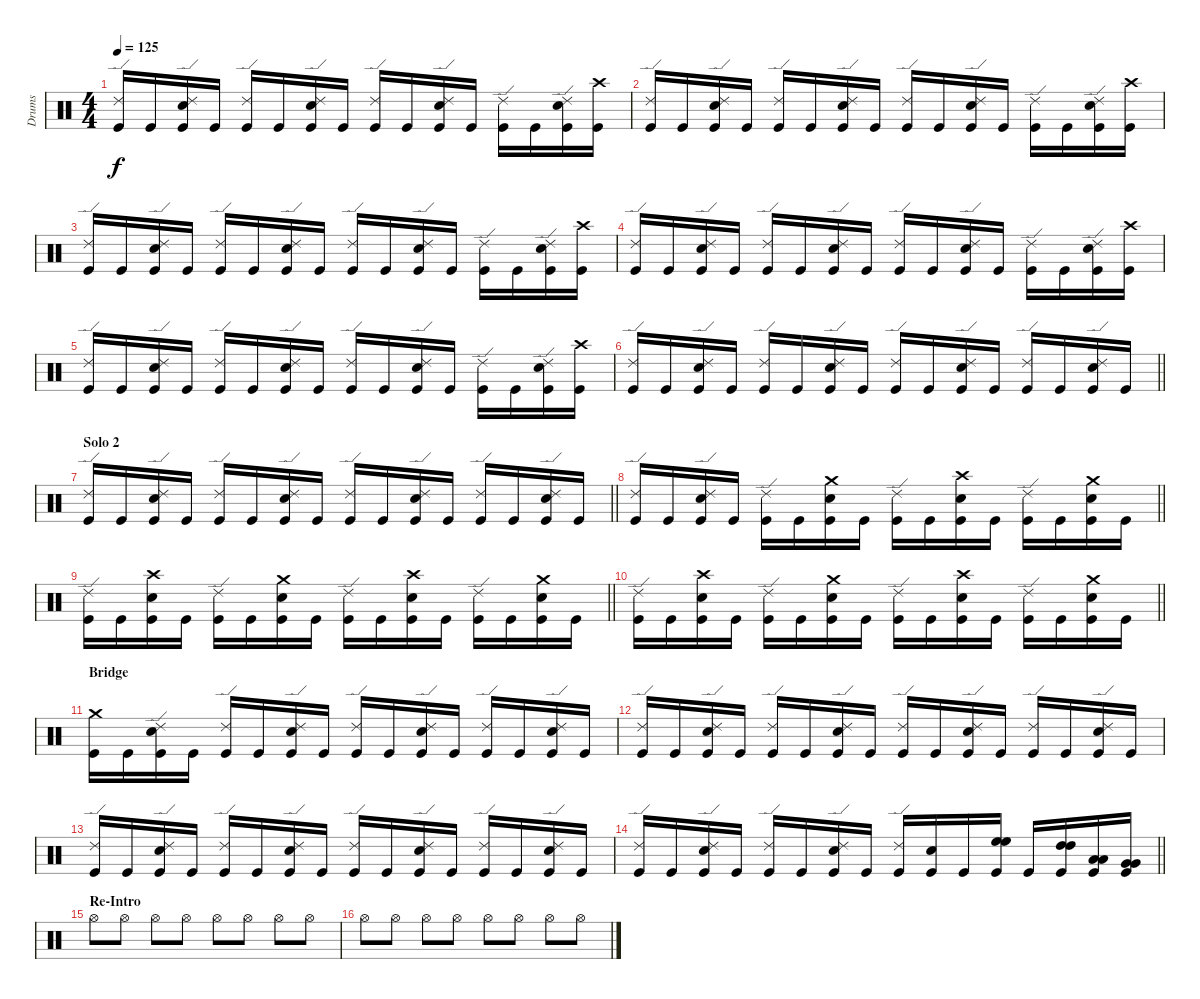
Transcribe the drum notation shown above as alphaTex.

\track ("Drums" "Drums") {instrument percussion}
\staff {score}
\articulation defaults
\ts (4 4)
\tempo 125
\clef neutral
\ks c
("Ride (edge) 2" "Kick (hit)").16{dy f} "Kick (hit)".16 ("Ride (edge) 2" "Snare (hit) 2" "Kick (hit)").16 "Kick (hit)".16 ("Ride (edge) 2" "Kick (hit)").16 "Kick (hit)".16 ("Ride (edge) 2" "Snare (hit) 2" "Kick (hit)").16 "Kick (hit)".16 ("Ride (edge) 2" "Kick (hit)").16 "Kick (hit)".16 ("Ride (edge) 2" "Snare (hit) 2" "Kick (hit)").16 "Kick (hit)".16 ("Ride (edge) 2" "Kick (hit)").16 "Kick (hit)".16 ("Ride (edge) 2" "Snare (hit) 2" "Kick (hit)").16 ("Crash high (hit)" "Kick (hit)").16 |
("Ride (edge) 2" "Kick (hit)").16 "Kick (hit)".16 ("Ride (edge) 2" "Snare (hit) 2" "Kick (hit)").16 "Kick (hit)".16 ("Ride (edge) 2" "Kick (hit)").16 "Kick (hit)".16 ("Ride (edge) 2" "Snare (hit) 2" "Kick (hit)").16 "Kick (hit)".16 ("Ride (edge) 2" "Kick (hit)").16 "Kick (hit)".16 ("Ride (edge) 2" "Snare (hit) 2" "Kick (hit)").16 "Kick (hit)".16 ("Ride (edge) 2" "Kick (hit)").16 "Kick (hit)".16 ("Ride (edge) 2" "Snare (hit) 2" "Kick (hit)").16 ("Crash high (hit)" "Kick (hit)").16 |
("Ride (edge) 2" "Kick (hit)").16 "Kick (hit)".16 ("Ride (edge) 2" "Snare (hit) 2" "Kick (hit)").16 "Kick (hit)".16 ("Ride (edge) 2" "Kick (hit)").16 "Kick (hit)".16 ("Ride (edge) 2" "Snare (hit) 2" "Kick (hit)").16 "Kick (hit)".16 ("Ride (edge) 2" "Kick (hit)").16 "Kick (hit)".16 ("Ride (edge) 2" "Snare (hit) 2" "Kick (hit)").16 "Kick (hit)".16 ("Ride (edge) 2" "Kick (hit)").16 "Kick (hit)".16 ("Ride (edge) 2" "Snare (hit) 2" "Kick (hit)").16 ("Crash high (hit)" "Kick (hit)").16 |
("Ride (edge) 2" "Kick (hit)").16 "Kick (hit)".16 ("Ride (edge) 2" "Snare (hit) 2" "Kick (hit)").16 "Kick (hit)".16 ("Ride (edge) 2" "Kick (hit)").16 "Kick (hit)".16 ("Ride (edge) 2" "Snare (hit) 2" "Kick (hit)").16 "Kick (hit)".16 ("Ride (edge) 2" "Kick (hit)").16 "Kick (hit)".16 ("Ride (edge) 2" "Snare (hit) 2" "Kick (hit)").16 "Kick (hit)".16 ("Ride (edge) 2" "Kick (hit)").16 "Kick (hit)".16 ("Ride (edge) 2" "Snare (hit) 2" "Kick (hit)").16 ("Crash high (hit)" "Kick (hit)").16 |
("Ride (edge) 2" "Kick (hit)").16 "Kick (hit)".16 ("Ride (edge) 2" "Snare (hit) 2" "Kick (hit)").16 "Kick (hit)".16 ("Ride (edge) 2" "Kick (hit)").16 "Kick (hit)".16 ("Ride (edge) 2" "Snare (hit) 2" "Kick (hit)").16 "Kick (hit)".16 ("Ride (edge) 2" "Kick (hit)").16 "Kick (hit)".16 ("Ride (edge) 2" "Snare (hit) 2" "Kick (hit)").16 "Kick (hit)".16 ("Ride (edge) 2" "Kick (hit)").16 "Kick (hit)".16 ("Ride (edge) 2" "Snare (hit) 2" "Kick (hit)").16 ("Crash high (hit)" "Kick (hit)").16 |
\barLineRight lightlight
("Ride (edge) 2" "Kick (hit)").16 "Kick (hit)".16 ("Ride (edge) 2" "Snare (hit) 2" "Kick (hit)").16 "Kick (hit)".16 ("Ride (edge) 2" "Kick (hit)").16 "Kick (hit)".16 ("Ride (edge) 2" "Snare (hit) 2" "Kick (hit)").16 "Kick (hit)".16 ("Ride (edge) 2" "Kick (hit)").16 "Kick (hit)".16 ("Ride (edge) 2" "Snare (hit) 2" "Kick (hit)").16 "Kick (hit)".16 ("Ride (edge) 2" "Kick (hit)").16 "Kick (hit)".16 ("Ride (edge) 2" "Snare (hit) 2" "Kick (hit)").16 "Kick (hit)".16 |
\section ("" "Solo 2")
\barLineRight lightlight
("Ride (edge) 2" "Kick (hit)").16 "Kick (hit)".16 ("Ride (edge) 2" "Snare (hit) 2" "Kick (hit)").16 "Kick (hit)".16 ("Ride (edge) 2" "Kick (hit)").16 "Kick (hit)".16 ("Ride (edge) 2" "Snare (hit) 2" "Kick (hit)").16 "Kick (hit)".16 ("Ride (edge) 2" "Kick (hit)").16 "Kick (hit)".16 ("Ride (edge) 2" "Snare (hit) 2" "Kick (hit)").16 "Kick (hit)".16 ("Ride (edge) 2" "Kick (hit)").16 "Kick (hit)".16 ("Ride (edge) 2" "Snare (hit) 2" "Kick (hit)").16 "Kick (hit)".16 |
\barLineRight lightlight
("Ride (edge) 2" "Kick (hit)").16 "Kick (hit)".16 ("Ride (edge) 2" "Snare (hit) 2" "Kick (hit)").16 "Kick (hit)".16 ("Ride (edge) 2" "Kick (hit)").16 "Kick (hit)".16 ("Crash medium (hit)" "Snare (hit) 2" "Kick (hit)").16 "Kick (hit)".16 ("Ride (edge) 2" "Kick (hit)").16 "Kick (hit)".16 ("Crash high (hit)" "Snare (hit) 2" "Kick (hit)").16 "Kick (hit)".16 ("Ride (edge) 2" "Kick (hit)").16 "Kick (hit)".16 ("Crash medium (hit)" "Snare (hit) 2" "Kick (hit)").16 "Kick (hit)".16 |
\barLineRight lightlight
("Ride (edge) 2" "Kick (hit)").16 "Kick (hit)".16 ("Crash high (hit)" "Snare (hit) 2" "Kick (hit)").16 "Kick (hit)".16 ("Ride (edge) 2" "Kick (hit)").16 "Kick (hit)".16 ("Crash medium (hit)" "Snare (hit) 2" "Kick (hit)").16 "Kick (hit)".16 ("Ride (edge) 2" "Kick (hit)").16 "Kick (hit)".16 ("Crash high (hit)" "Snare (hit) 2" "Kick (hit)").16 "Kick (hit)".16 ("Ride (edge) 2" "Kick (hit)").16 "Kick (hit)".16 ("Crash medium (hit)" "Snare (hit) 2" "Kick (hit)").16 "Kick (hit)".16 |
\barLineRight lightlight
("Ride (edge) 2" "Kick (hit)").16 "Kick (hit)".16 ("Crash high (hit)" "Snare (hit) 2" "Kick (hit)").16 "Kick (hit)".16 ("Ride (edge) 2" "Kick (hit)").16 "Kick (hit)".16 ("Crash medium (hit)" "Snare (hit) 2" "Kick (hit)").16 "Kick (hit)".16 ("Ride (edge) 2" "Kick (hit)").16 "Kick (hit)".16 ("Crash high (hit)" "Snare (hit) 2" "Kick (hit)").16 "Kick (hit)".16 ("Ride (edge) 2" "Kick (hit)").16 "Kick (hit)".16 ("Crash medium (hit)" "Snare (hit) 2" "Kick (hit)").16 "Kick (hit)".16 |
\section ("" "Bridge")
("Crash medium (hit)" "Kick (hit)").16 "Kick (hit)".16 ("Ride (edge) 2" "Snare (hit) 2" "Kick (hit)").16 "Kick (hit)".16 ("Ride (edge) 2" "Kick (hit)").16 "Kick (hit)".16 ("Ride (edge) 2" "Snare (hit) 2" "Kick (hit)").16 "Kick (hit)".16 ("Ride (edge) 2" "Kick (hit)").16 "Kick (hit)".16 ("Ride (edge) 2" "Snare (hit) 2" "Kick (hit)").16 "Kick (hit)".16 ("Ride (edge) 2" "Kick (hit)").16 "Kick (hit)".16 ("Ride (edge) 2" "Snare (hit) 2" "Kick (hit)").16 "Kick (hit)".16 |
("Ride (edge) 2" "Kick (hit)").16 "Kick (hit)".16 ("Ride (edge) 2" "Snare (hit) 2" "Kick (hit)").16 "Kick (hit)".16 ("Ride (edge) 2" "Kick (hit)").16 "Kick (hit)".16 ("Ride (edge) 2" "Snare (hit) 2" "Kick (hit)").16 "Kick (hit)".16 ("Ride (edge) 2" "Kick (hit)").16 "Kick (hit)".16 ("Ride (edge) 2" "Snare (hit) 2" "Kick (hit)").16 "Kick (hit)".16 ("Ride (edge) 2" "Kick (hit)").16 "Kick (hit)".16 ("Ride (edge) 2" "Snare (hit) 2" "Kick (hit)").16 "Kick (hit)".16 |
("Ride (edge) 2" "Kick (hit)").16 "Kick (hit)".16 ("Ride (edge) 2" "Snare (hit) 2" "Kick (hit)").16 "Kick (hit)".16 ("Ride (edge) 2" "Kick (hit)").16 "Kick (hit)".16 ("Ride (edge) 2" "Snare (hit) 2" "Kick (hit)").16 "Kick (hit)".16 ("Ride (edge) 2" "Kick (hit)").16 "Kick (hit)".16 ("Ride (edge) 2" "Snare (hit) 2" "Kick (hit)").16 "Kick (hit)".16 ("Ride (edge) 2" "Kick (hit)").16 "Kick (hit)".16 ("Ride (edge) 2" "Snare (hit) 2" "Kick (hit)").16 "Kick (hit)".16 |
\barLineRight lightlight
("Ride (edge) 2" "Kick (hit)").16 "Kick (hit)".16 ("Ride (edge) 2" "Snare (hit) 2" "Kick (hit)").16 "Kick (hit)".16 ("Ride (edge) 2" "Kick (hit)").16 "Kick (hit)".16 ("Ride (edge) 2" "Snare (hit) 2" "Kick (hit)").16 "Kick (hit)".16 ("Ride (edge) 2" "Kick (hit)").16 ("Snare (hit) 2" "Kick (hit)").16 "Kick (hit)".16 ("High Floor Tom (hit)" "High Floor Tom (hit)" "Kick (hit)").16 "Kick (hit)".16 ("High Tom (hit)" "High Tom (hit)" "Kick (hit)").16 ("Low Tom (hit)" "Low Tom (hit)" "Kick (hit)").16 ("Very Low Tom (hit)" "Very Low Tom (hit)" "Kick (hit)").16 |
\section ("" "Re-Intro")
"Hi-Hat (open)".8 "Hi-Hat (open)".8 "Hi-Hat (open)".8 "Hi-Hat (open)".8 "Hi-Hat (open)".8 "Hi-Hat (open)".8 "Hi-Hat (open)".8 "Hi-Hat (open)".8 |
"Hi-Hat (open)".8 "Hi-Hat (open)".8 "Hi-Hat (open)".8 "Hi-Hat (open)".8 "Hi-Hat (open)".8 "Hi-Hat (open)".8 "Hi-Hat (open)".8 "Hi-Hat (open)".8
